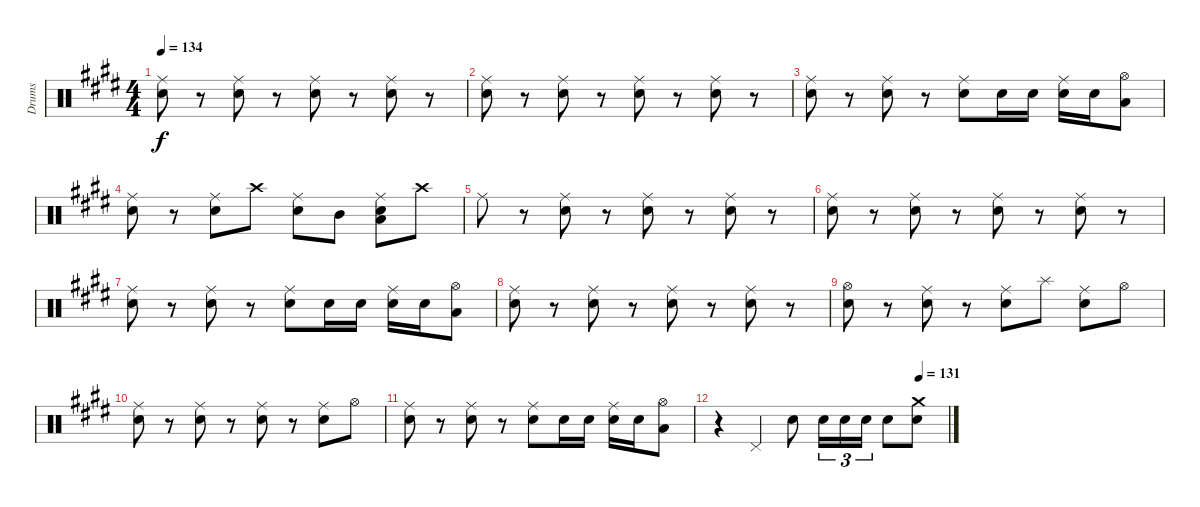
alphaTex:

\track ("Drums" "Drums") {instrument percussion}
\staff {score}
\articulation defaults
\ts (4 4)
\tempo 134
\clef neutral
\ks e
("Ride (middle)" "Electric Snare (hit)").8{dy f} r.8 ("Ride (middle)" "Electric Snare (hit)").8 r.8 ("Ride (middle)" "Electric Snare (hit)").8 r.8 ("Ride (middle)" "Electric Snare (hit)").8 r.8 |
("Ride (middle)" "Electric Snare (hit)").8 r.8 ("Ride (middle)" "Electric Snare (hit)").8 r.8 ("Ride (middle)" "Electric Snare (hit)").8 r.8 ("Ride (middle)" "Electric Snare (hit)").8 r.8 |
("Ride (middle)" "Electric Snare (hit)").8 r.8 ("Ride (middle)" "Electric Snare (hit)").8 r.8 ("Ride (middle)" "Electric Snare (hit)").8 "Electric Snare (hit)".16{volume 8} "Electric Snare (hit)".16 ("Ride (middle)" "Electric Snare (hit)").16 "Electric Snare (hit)".16 ("Hi-Hat (open)" "Low Tom (hit)").8{volume 10} |
("Ride (middle)" "Electric Snare (hit)").8 r.8 ("Ride (middle)" "Electric Snare (hit)").8 "Crash high (hit)".8 ("Ride (middle)" "Electric Snare (hit)").8 "Mid Tom (hit)".8 ("Ride (middle)" "Low Tom (hit)" "Electric Snare (hit)").8 "Crash high (hit)".8 |
"Ride (middle)".8 r.8 ("Ride (middle)" "Electric Snare (hit)").8 r.8 ("Ride (middle)" "Electric Snare (hit)").8 r.8 ("Ride (middle)" "Electric Snare (hit)").8 r.8 |
("Ride (middle)" "Electric Snare (hit)").8 r.8 ("Ride (middle)" "Electric Snare (hit)").8 r.8 ("Ride (middle)" "Electric Snare (hit)").8 r.8 ("Ride (middle)" "Electric Snare (hit)").8 r.8 |
("Ride (middle)" "Electric Snare (hit)").8 r.8 ("Ride (middle)" "Electric Snare (hit)").8 r.8 ("Ride (middle)" "Electric Snare (hit)").8 "Electric Snare (hit)".16{volume 8} "Electric Snare (hit)".16 ("Ride (middle)" "Electric Snare (hit)").16 "Electric Snare (hit)".16 ("Hi-Hat (open)" "Low Tom (hit)").8{volume 10} |
("Ride (middle)" "Electric Snare (hit)").8 r.8 ("Ride (middle)" "Electric Snare (hit)").8 r.8 ("Ride (middle)" "Electric Snare (hit)").8 r.8 ("Ride (middle)" "Electric Snare (hit)").8 r.8 |
("Hi-Hat (open)" "Electric Snare (hit)").8 r.8 ("Ride (middle)" "Electric Snare (hit)").8 r.8 ("Ride (middle)" "Electric Snare (hit)").8 "Splash (hit)".8 ("Ride (middle)" "Electric Snare (hit)").8 "Hi-Hat (open)".8 |
("Ride (middle)" "Electric Snare (hit)").8 r.8 ("Ride (middle)" "Electric Snare (hit)").8 r.8 ("Ride (middle)" "Electric Snare (hit)").8 r.8 ("Ride (middle)" "Electric Snare (hit)").8 "Hi-Hat (open)".8 |
("Ride (middle)" "Electric Snare (hit)").8 r.8 ("Ride (middle)" "Electric Snare (hit)").8 r.8 ("Ride (middle)" "Electric Snare (hit)").8 "Electric Snare (hit)".16{volume 8} "Electric Snare (hit)".16 ("Ride (middle)" "Electric Snare (hit)").16 "Electric Snare (hit)".16 ("Hi-Hat (open)" "Low Tom (hit)").8{volume 10} |
\tempo (131 0.875)
r.4 "Pedal Hi-Hat (hit)".4 "Electric Snare (hit)".8 "Electric Snare (hit)".16{tu (3 2)} "Electric Snare (hit)".16{tu (3 2)} "Electric Snare (hit)".16{tu (3 2)} "Electric Snare (hit)".8 ("Crash medium (hit)" "Electric Snare (hit)").8
